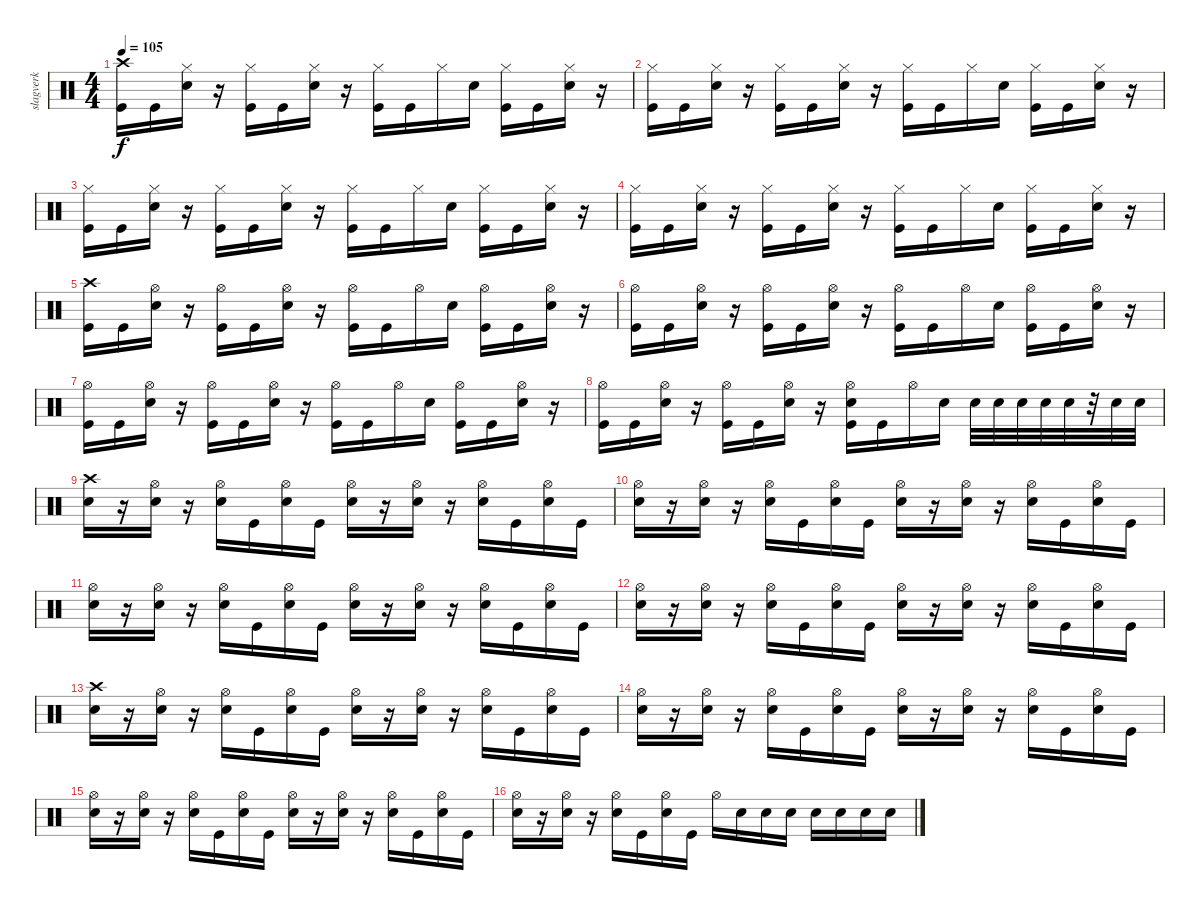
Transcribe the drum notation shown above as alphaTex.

\track ("slagverk" "slagverk") {instrument percussion}
\staff {score}
\articulation defaults
\ts (4 4)
\tempo 105
\clef neutral
\ks c
("Crash high (hit)" "Kick (hit)").16{dy f} "Kick (hit)".16 ("Hi-Hat (closed)" "Snare (hit) 2").16 r.16 ("Hi-Hat (closed)" "Kick (hit)").16 "Kick (hit)".16 ("Hi-Hat (closed)" "Snare (hit) 2").16 r.16 ("Hi-Hat (closed)" "Kick (hit)").16 "Kick (hit)".16 "Hi-Hat (closed)".16 "Snare (hit) 2".16 ("Hi-Hat (closed)" "Kick (hit)").16 "Kick (hit)".16 ("Hi-Hat (closed)" "Snare (hit) 2").16 r.16 |
("Hi-Hat (closed)" "Kick (hit)").16 "Kick (hit)".16 ("Hi-Hat (closed)" "Snare (hit) 2").16 r.16 ("Hi-Hat (closed)" "Kick (hit)").16 "Kick (hit)".16 ("Hi-Hat (closed)" "Snare (hit) 2").16 r.16 ("Hi-Hat (closed)" "Kick (hit)").16 "Kick (hit)".16 "Hi-Hat (closed)".16 "Snare (hit) 2".16 ("Hi-Hat (closed)" "Kick (hit)").16 "Kick (hit)".16 ("Hi-Hat (closed)" "Snare (hit) 2").16 r.16 |
("Hi-Hat (closed)" "Kick (hit)").16 "Kick (hit)".16 ("Hi-Hat (closed)" "Snare (hit) 2").16 r.16 ("Hi-Hat (closed)" "Kick (hit)").16 "Kick (hit)".16 ("Hi-Hat (closed)" "Snare (hit) 2").16 r.16 ("Hi-Hat (closed)" "Kick (hit)").16 "Kick (hit)".16 "Hi-Hat (closed)".16 "Snare (hit) 2".16 ("Hi-Hat (closed)" "Kick (hit)").16 "Kick (hit)".16 ("Hi-Hat (closed)" "Snare (hit) 2").16 r.16 |
("Hi-Hat (closed)" "Kick (hit)").16 "Kick (hit)".16 ("Hi-Hat (closed)" "Snare (hit) 2").16 r.16 ("Hi-Hat (closed)" "Kick (hit)").16 "Kick (hit)".16 ("Hi-Hat (closed)" "Snare (hit) 2").16 r.16 ("Hi-Hat (closed)" "Kick (hit)").16 "Kick (hit)".16 "Hi-Hat (closed)".16 "Snare (hit) 2".16 ("Hi-Hat (closed)" "Kick (hit)").16 "Kick (hit)".16 ("Hi-Hat (closed)" "Snare (hit) 2").16 r.16 |
("Crash high (hit)" "Kick (hit)").16 "Kick (hit)".16 ("Hi-Hat (open)" "Snare (hit) 2").16 r.16 ("Hi-Hat (open)" "Kick (hit)").16 "Kick (hit)".16 ("Hi-Hat (open)" "Snare (hit) 2").16 r.16 ("Hi-Hat (open)" "Kick (hit)").16 "Kick (hit)".16 "Hi-Hat (open)".16 "Snare (hit) 2".16 ("Hi-Hat (open)" "Kick (hit)").16 "Kick (hit)".16 ("Hi-Hat (open)" "Snare (hit) 2").16 r.16 |
("Hi-Hat (open)" "Kick (hit)").16 "Kick (hit)".16 ("Hi-Hat (open)" "Snare (hit) 2").16 r.16 ("Hi-Hat (open)" "Kick (hit)").16 "Kick (hit)".16 ("Hi-Hat (open)" "Snare (hit) 2").16 r.16 ("Hi-Hat (open)" "Kick (hit)").16 "Kick (hit)".16 "Hi-Hat (open)".16 "Snare (hit) 2".16 ("Hi-Hat (open)" "Kick (hit)").16 "Kick (hit)".16 ("Hi-Hat (open)" "Snare (hit) 2").16 r.16 |
("Hi-Hat (open)" "Kick (hit)").16 "Kick (hit)".16 ("Hi-Hat (open)" "Snare (hit) 2").16 r.16 ("Hi-Hat (open)" "Kick (hit)").16 "Kick (hit)".16 ("Hi-Hat (open)" "Snare (hit) 2").16 r.16 ("Hi-Hat (open)" "Kick (hit)").16 "Kick (hit)".16 "Hi-Hat (open)".16 "Snare (hit) 2".16 ("Hi-Hat (open)" "Kick (hit)").16 "Kick (hit)".16 ("Hi-Hat (open)" "Snare (hit) 2").16 r.16 |
("Hi-Hat (open)" "Kick (hit)").16 "Kick (hit)".16 ("Hi-Hat (open)" "Snare (hit) 2").16 r.16 ("Hi-Hat (open)" "Kick (hit)").16 "Kick (hit)".16 ("Hi-Hat (open)" "Snare (hit) 2").16 r.16 ("Hi-Hat (open)" "Snare (hit) 2" "Kick (hit)").16 "Kick (hit)".16 "Hi-Hat (open)".16 "Snare (hit) 2".16 "Snare (hit) 2".32 "Snare (hit) 2".32 "Snare (hit) 2".32 "Snare (hit) 2".32 "Snare (hit) 2".32 r.32 "Snare (hit) 2".32 "Snare (hit) 2".32 |
("Crash high (hit)" "Snare (hit) 2").16 r.16 ("Hi-Hat (open)" "Snare (hit) 2").16 r.16 ("Hi-Hat (open)" "Snare (hit) 2").16 "Kick (hit)".16 ("Hi-Hat (open)" "Snare (hit) 2").16 "Kick (hit)".16 ("Hi-Hat (open)" "Snare (hit) 2").16 r.16 ("Hi-Hat (open)" "Snare (hit) 2").16 r.16 ("Hi-Hat (open)" "Snare (hit) 2").16 "Kick (hit)".16 ("Hi-Hat (open)" "Snare (hit) 2").16 "Kick (hit)".16 |
("Hi-Hat (open)" "Snare (hit) 2").16 r.16 ("Hi-Hat (open)" "Snare (hit) 2").16 r.16 ("Hi-Hat (open)" "Snare (hit) 2").16 "Kick (hit)".16 ("Hi-Hat (open)" "Snare (hit) 2").16 "Kick (hit)".16 ("Hi-Hat (open)" "Snare (hit) 2").16 r.16 ("Hi-Hat (open)" "Snare (hit) 2").16 r.16 ("Hi-Hat (open)" "Snare (hit) 2").16 "Kick (hit)".16 ("Hi-Hat (open)" "Snare (hit) 2").16 "Kick (hit)".16 |
("Hi-Hat (open)" "Snare (hit) 2").16 r.16 ("Hi-Hat (open)" "Snare (hit) 2").16 r.16 ("Hi-Hat (open)" "Snare (hit) 2").16 "Kick (hit)".16 ("Hi-Hat (open)" "Snare (hit) 2").16 "Kick (hit)".16 ("Hi-Hat (open)" "Snare (hit) 2").16 r.16 ("Hi-Hat (open)" "Snare (hit) 2").16 r.16 ("Hi-Hat (open)" "Snare (hit) 2").16 "Kick (hit)".16 ("Hi-Hat (open)" "Snare (hit) 2").16 "Kick (hit)".16 |
("Hi-Hat (open)" "Snare (hit) 2").16 r.16 ("Hi-Hat (open)" "Snare (hit) 2").16 r.16 ("Hi-Hat (open)" "Snare (hit) 2").16 "Kick (hit)".16 ("Hi-Hat (open)" "Snare (hit) 2").16 "Kick (hit)".16 ("Hi-Hat (open)" "Snare (hit) 2").16 r.16 ("Hi-Hat (open)" "Snare (hit) 2").16 r.16 ("Hi-Hat (open)" "Snare (hit) 2").16 "Kick (hit)".16 ("Hi-Hat (open)" "Snare (hit) 2").16 "Kick (hit)".16 |
("Crash high (hit)" "Snare (hit) 2").16 r.16 ("Hi-Hat (open)" "Snare (hit) 2").16 r.16 ("Hi-Hat (open)" "Snare (hit) 2").16 "Kick (hit)".16 ("Hi-Hat (open)" "Snare (hit) 2").16 "Kick (hit)".16 ("Hi-Hat (open)" "Snare (hit) 2").16 r.16 ("Hi-Hat (open)" "Snare (hit) 2").16 r.16 ("Hi-Hat (open)" "Snare (hit) 2").16 "Kick (hit)".16 ("Hi-Hat (open)" "Snare (hit) 2").16 "Kick (hit)".16 |
("Hi-Hat (open)" "Snare (hit) 2").16 r.16 ("Hi-Hat (open)" "Snare (hit) 2").16 r.16 ("Hi-Hat (open)" "Snare (hit) 2").16 "Kick (hit)".16 ("Hi-Hat (open)" "Snare (hit) 2").16 "Kick (hit)".16 ("Hi-Hat (open)" "Snare (hit) 2").16 r.16 ("Hi-Hat (open)" "Snare (hit) 2").16 r.16 ("Hi-Hat (open)" "Snare (hit) 2").16 "Kick (hit)".16 ("Hi-Hat (open)" "Snare (hit) 2").16 "Kick (hit)".16 |
("Hi-Hat (open)" "Snare (hit) 2").16 r.16 ("Hi-Hat (open)" "Snare (hit) 2").16 r.16 ("Hi-Hat (open)" "Snare (hit) 2").16 "Kick (hit)".16 ("Hi-Hat (open)" "Snare (hit) 2").16 "Kick (hit)".16 ("Hi-Hat (open)" "Snare (hit) 2").16 r.16 ("Hi-Hat (open)" "Snare (hit) 2").16 r.16 ("Hi-Hat (open)" "Snare (hit) 2").16 "Kick (hit)".16 ("Hi-Hat (open)" "Snare (hit) 2").16 "Kick (hit)".16 |
("Hi-Hat (open)" "Snare (hit) 2").16 r.16 ("Hi-Hat (open)" "Snare (hit) 2").16 r.16 ("Hi-Hat (open)" "Snare (hit) 2").16 "Kick (hit)".16 ("Hi-Hat (open)" "Snare (hit) 2").16 "Kick (hit)".16 "Hi-Hat (open)".16 "Snare (hit) 2".16 "Snare (hit) 2".16 "Snare (hit) 2".16 "Snare (hit) 2".16 "Snare (hit) 2".16 "Snare (hit) 2".16 "Snare (hit) 2".16
